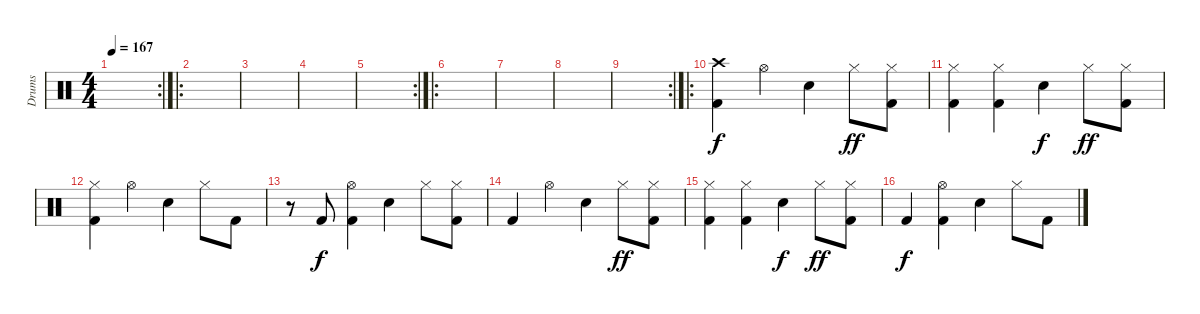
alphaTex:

\track ("Drums" "Drums") {instrument percussion}
\staff {score}
\articulation defaults
\rc 2
\ts (4 4)
\tempo 167
\clef neutral
\ks c
|
\ro
|
|
|
\rc 2
|
\ro
|
|
|
\rc 2
|
\ro
("Crash high (hit)" "Kick (hit) 2").4 "Hi-Hat (open)".4 "Electric Snare (hit)".4 "Hi-Hat (closed)".8{dy ff} ("Hi-Hat (closed)" "Kick (hit) 2").8 |
("Hi-Hat (closed)" "Kick (hit) 2").4 ("Hi-Hat (closed)" "Kick (hit) 2").4 "Electric Snare (hit)".4{dy f} "Hi-Hat (closed)".8{dy ff} ("Hi-Hat (closed)" "Kick (hit) 2").8 |
("Hi-Hat (closed)" "Kick (hit) 2").4 "Hi-Hat (open)".4 "Electric Snare (hit)".4 "Hi-Hat (closed)".8 "Kick (hit) 2".8 |
r.8 "Kick (hit) 2".8{dy f} ("Hi-Hat (open)" "Kick (hit) 2").4 "Electric Snare (hit)".4 "Hi-Hat (closed)".8 ("Hi-Hat (closed)" "Kick (hit) 2").8 |
"Kick (hit) 2".4 "Hi-Hat (open)".4 "Electric Snare (hit)".4 "Hi-Hat (closed)".8{dy ff} ("Hi-Hat (closed)" "Kick (hit) 2").8 |
("Hi-Hat (closed)" "Kick (hit) 2").4 ("Hi-Hat (closed)" "Kick (hit) 2").4 "Electric Snare (hit)".4{dy f} "Hi-Hat (closed)".8{dy ff} ("Hi-Hat (closed)" "Kick (hit) 2").8 |
"Kick (hit) 2".4{dy f} ("Hi-Hat (open)" "Kick (hit) 2").4 "Electric Snare (hit)".4 "Hi-Hat (closed)".8 "Kick (hit) 2".8
